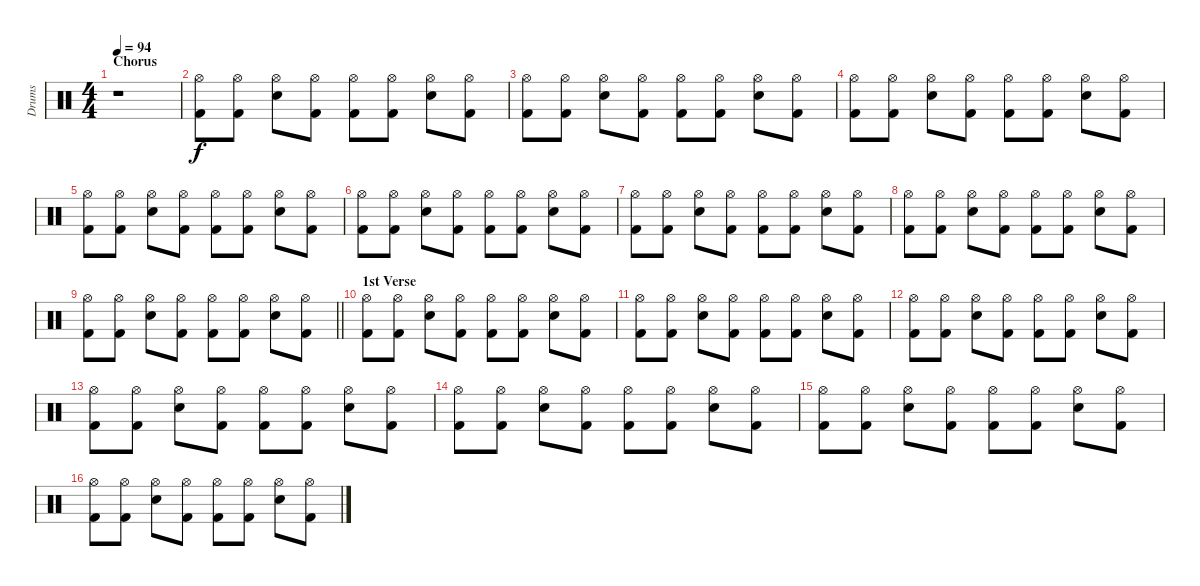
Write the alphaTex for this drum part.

\track ("Drums" "Drums") {instrument percussion}
\staff {score}
\articulation defaults
\ts (4 4)
\section ("" "Chorus")
\tempo 94
\clef neutral
\ks c
r.1{dy f} |
("Kick (hit) 2" "Hi-Hat (open)").8 ("Kick (hit) 2" "Hi-Hat (open)").8 ("Snare (hit) 2" "Hi-Hat (open)").8 ("Kick (hit) 2" "Hi-Hat (open)").8 ("Kick (hit) 2" "Hi-Hat (open)").8 ("Kick (hit) 2" "Hi-Hat (open)").8 ("Snare (hit) 2" "Hi-Hat (open)").8 ("Kick (hit) 2" "Hi-Hat (open)").8 |
("Kick (hit) 2" "Hi-Hat (open)").8 ("Kick (hit) 2" "Hi-Hat (open)").8 ("Snare (hit) 2" "Hi-Hat (open)").8 ("Kick (hit) 2" "Hi-Hat (open)").8 ("Kick (hit) 2" "Hi-Hat (open)").8 ("Kick (hit) 2" "Hi-Hat (open)").8 ("Snare (hit) 2" "Hi-Hat (open)").8 ("Kick (hit) 2" "Hi-Hat (open)").8 |
("Kick (hit) 2" "Hi-Hat (open)").8 ("Kick (hit) 2" "Hi-Hat (open)").8 ("Snare (hit) 2" "Hi-Hat (open)").8 ("Kick (hit) 2" "Hi-Hat (open)").8 ("Kick (hit) 2" "Hi-Hat (open)").8 ("Kick (hit) 2" "Hi-Hat (open)").8 ("Snare (hit) 2" "Hi-Hat (open)").8 ("Kick (hit) 2" "Hi-Hat (open)").8 |
("Kick (hit) 2" "Hi-Hat (open)").8 ("Kick (hit) 2" "Hi-Hat (open)").8 ("Snare (hit) 2" "Hi-Hat (open)").8 ("Kick (hit) 2" "Hi-Hat (open)").8 ("Kick (hit) 2" "Hi-Hat (open)").8 ("Kick (hit) 2" "Hi-Hat (open)").8 ("Snare (hit) 2" "Hi-Hat (open)").8 ("Kick (hit) 2" "Hi-Hat (open)").8 |
("Kick (hit) 2" "Hi-Hat (open)").8 ("Kick (hit) 2" "Hi-Hat (open)").8 ("Snare (hit) 2" "Hi-Hat (open)").8 ("Kick (hit) 2" "Hi-Hat (open)").8 ("Kick (hit) 2" "Hi-Hat (open)").8 ("Kick (hit) 2" "Hi-Hat (open)").8 ("Snare (hit) 2" "Hi-Hat (open)").8 ("Kick (hit) 2" "Hi-Hat (open)").8 |
("Kick (hit) 2" "Hi-Hat (open)").8 ("Kick (hit) 2" "Hi-Hat (open)").8 ("Snare (hit) 2" "Hi-Hat (open)").8 ("Kick (hit) 2" "Hi-Hat (open)").8 ("Kick (hit) 2" "Hi-Hat (open)").8 ("Kick (hit) 2" "Hi-Hat (open)").8 ("Snare (hit) 2" "Hi-Hat (open)").8 ("Kick (hit) 2" "Hi-Hat (open)").8 |
("Kick (hit) 2" "Hi-Hat (open)").8 ("Kick (hit) 2" "Hi-Hat (open)").8 ("Snare (hit) 2" "Hi-Hat (open)").8 ("Kick (hit) 2" "Hi-Hat (open)").8 ("Kick (hit) 2" "Hi-Hat (open)").8 ("Kick (hit) 2" "Hi-Hat (open)").8 ("Snare (hit) 2" "Hi-Hat (open)").8 ("Kick (hit) 2" "Hi-Hat (open)").8 |
\barLineRight lightlight
("Kick (hit) 2" "Hi-Hat (open)").8 ("Kick (hit) 2" "Hi-Hat (open)").8 ("Snare (hit) 2" "Hi-Hat (open)").8 ("Kick (hit) 2" "Hi-Hat (open)").8 ("Kick (hit) 2" "Hi-Hat (open)").8 ("Kick (hit) 2" "Hi-Hat (open)").8 ("Snare (hit) 2" "Hi-Hat (open)").8 ("Kick (hit) 2" "Hi-Hat (open)").8 |
\section ("" "1st Verse")
("Kick (hit) 2" "Hi-Hat (open)").8 ("Kick (hit) 2" "Hi-Hat (open)").8 ("Snare (hit) 2" "Hi-Hat (open)").8 ("Kick (hit) 2" "Hi-Hat (open)").8 ("Kick (hit) 2" "Hi-Hat (open)").8 ("Kick (hit) 2" "Hi-Hat (open)").8 ("Snare (hit) 2" "Hi-Hat (open)").8 ("Kick (hit) 2" "Hi-Hat (open)").8 |
("Kick (hit) 2" "Hi-Hat (open)").8 ("Kick (hit) 2" "Hi-Hat (open)").8 ("Snare (hit) 2" "Hi-Hat (open)").8 ("Kick (hit) 2" "Hi-Hat (open)").8 ("Kick (hit) 2" "Hi-Hat (open)").8 ("Kick (hit) 2" "Hi-Hat (open)").8 ("Snare (hit) 2" "Hi-Hat (open)").8 ("Kick (hit) 2" "Hi-Hat (open)").8 |
("Kick (hit) 2" "Hi-Hat (open)").8 ("Kick (hit) 2" "Hi-Hat (open)").8 ("Snare (hit) 2" "Hi-Hat (open)").8 ("Kick (hit) 2" "Hi-Hat (open)").8 ("Kick (hit) 2" "Hi-Hat (open)").8 ("Kick (hit) 2" "Hi-Hat (open)").8 ("Snare (hit) 2" "Hi-Hat (open)").8 ("Kick (hit) 2" "Hi-Hat (open)").8 |
("Kick (hit) 2" "Hi-Hat (open)").8 ("Kick (hit) 2" "Hi-Hat (open)").8 ("Snare (hit) 2" "Hi-Hat (open)").8 ("Kick (hit) 2" "Hi-Hat (open)").8 ("Kick (hit) 2" "Hi-Hat (open)").8 ("Kick (hit) 2" "Hi-Hat (open)").8 ("Snare (hit) 2" "Hi-Hat (open)").8 ("Kick (hit) 2" "Hi-Hat (open)").8 |
("Kick (hit) 2" "Hi-Hat (open)").8 ("Kick (hit) 2" "Hi-Hat (open)").8 ("Snare (hit) 2" "Hi-Hat (open)").8 ("Kick (hit) 2" "Hi-Hat (open)").8 ("Kick (hit) 2" "Hi-Hat (open)").8 ("Kick (hit) 2" "Hi-Hat (open)").8 ("Snare (hit) 2" "Hi-Hat (open)").8 ("Kick (hit) 2" "Hi-Hat (open)").8 |
("Kick (hit) 2" "Hi-Hat (open)").8 ("Kick (hit) 2" "Hi-Hat (open)").8 ("Snare (hit) 2" "Hi-Hat (open)").8 ("Kick (hit) 2" "Hi-Hat (open)").8 ("Kick (hit) 2" "Hi-Hat (open)").8 ("Kick (hit) 2" "Hi-Hat (open)").8 ("Snare (hit) 2" "Hi-Hat (open)").8 ("Kick (hit) 2" "Hi-Hat (open)").8 |
("Kick (hit) 2" "Hi-Hat (open)").8 ("Kick (hit) 2" "Hi-Hat (open)").8 ("Snare (hit) 2" "Hi-Hat (open)").8 ("Kick (hit) 2" "Hi-Hat (open)").8 ("Kick (hit) 2" "Hi-Hat (open)").8 ("Kick (hit) 2" "Hi-Hat (open)").8 ("Snare (hit) 2" "Hi-Hat (open)").8 ("Kick (hit) 2" "Hi-Hat (open)").8
